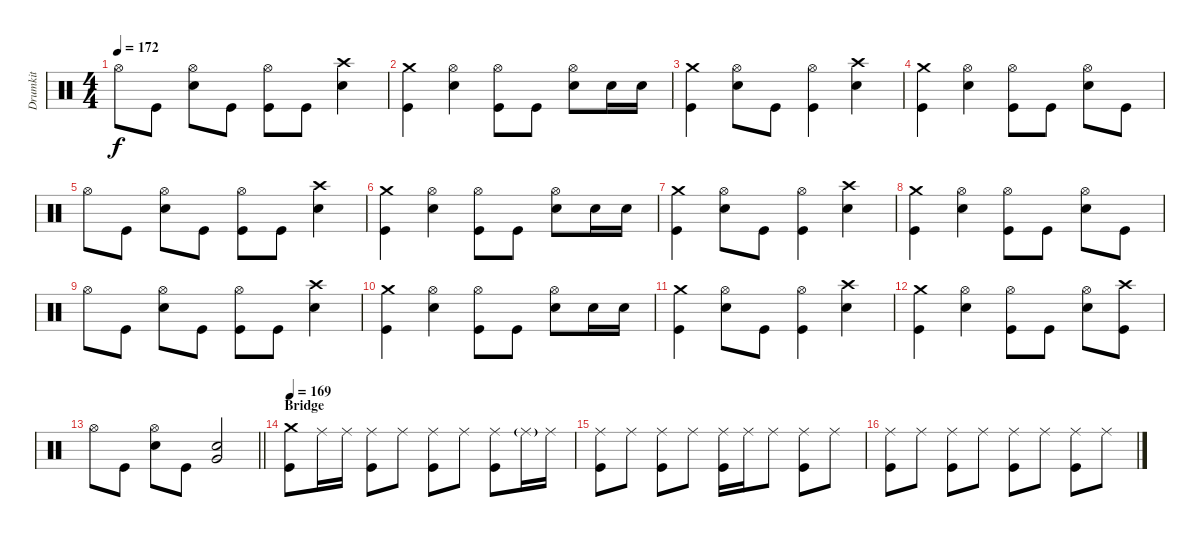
\track ("Drumkit" "Drumkit") {instrument percussion}
\staff {score}
\articulation defaults
\ts (4 4)
\tempo 172
\clef neutral
\ks c "Hi-Hat (open)".8{dy f} "Kick (hit)".8
("Hi-Hat (open)" "Snare (hit) 2").8 "Kick (hit)".8 ("Hi-Hat (open)" "Kick (hit)").8 "Kick (hit)".8 ("Crash high (hit)" "Snare (hit) 2").4 |
("Crash medium (hit)" "Kick (hit)").4 ("Hi-Hat (open)" "Snare (hit) 2").4 ("Hi-Hat (open)" "Kick (hit)").8 "Kick (hit)".8 ("Hi-Hat (open)" "Snare (hit) 2").8 "Snare (hit) 2".16 "Snare (hit) 2".16 |
("Crash medium (hit)" "Kick (hit)").4 ("Hi-Hat (open)" "Snare (hit) 2").8 "Kick (hit)".8 ("Hi-Hat (open)" "Kick (hit)").4 ("Crash high (hit)" "Snare (hit) 2").4 |
("Crash medium (hit)" "Kick (hit)").4 ("Hi-Hat (open)" "Snare (hit) 2").4 ("Hi-Hat (open)" "Kick (hit)").8 "Kick (hit)".8 ("Hi-Hat (open)" "Snare (hit) 2").8 "Kick (hit)".8 |
"Hi-Hat (open)".8 "Kick (hit)".8 ("Hi-Hat (open)" "Snare (hit) 2").8 "Kick (hit)".8 ("Hi-Hat (open)" "Kick (hit)").8 "Kick (hit)".8 ("Crash high (hit)" "Snare (hit) 2").4 |
("Crash medium (hit)" "Kick (hit)").4 ("Hi-Hat (open)" "Snare (hit) 2").4 ("Hi-Hat (open)" "Kick (hit)").8 "Kick (hit)".8 ("Hi-Hat (open)" "Snare (hit) 2").8 "Snare (hit) 2".16 "Snare (hit) 2".16 |
("Crash medium (hit)" "Kick (hit)").4 ("Hi-Hat (open)" "Snare (hit) 2").8 "Kick (hit)".8 ("Hi-Hat (open)" "Kick (hit)").4 ("Crash high (hit)" "Snare (hit) 2").4 |
("Crash medium (hit)" "Kick (hit)").4 ("Hi-Hat (open)" "Snare (hit) 2").4 ("Hi-Hat (open)" "Kick (hit)").8 "Kick (hit)".8 ("Hi-Hat (open)" "Snare (hit) 2").8 "Kick (hit)".8 |
"Hi-Hat (open)".8 "Kick (hit)".8 ("Hi-Hat (open)" "Snare (hit) 2").8 "Kick (hit)".8 ("Hi-Hat (open)" "Kick (hit)").8 "Kick (hit)".8 ("Crash high (hit)" "Snare (hit) 2").4 |
("Crash medium (hit)" "Kick (hit)").4 ("Hi-Hat (open)" "Snare (hit) 2").4 ("Hi-Hat (open)" "Kick (hit)").8 "Kick (hit)".8 ("Hi-Hat (open)" "Snare (hit) 2").8 "Snare (hit) 2".16 "Snare (hit) 2".16 |
("Crash medium (hit)" "Kick (hit)").4 ("Hi-Hat (open)" "Snare (hit) 2").8 "Kick (hit)".8 ("Hi-Hat (open)" "Kick (hit)").4 ("Crash high (hit)" "Snare (hit) 2").4 |
("Crash medium (hit)" "Kick (hit)").4 ("Hi-Hat (open)" "Snare (hit) 2").4 ("Hi-Hat (open)" "Kick (hit)").8 "Kick (hit)".8 ("Hi-Hat (open)" "Snare (hit) 2").8 ("Crash high (hit)" "Kick (hit)").8 |
\barLineRight lightlight "Hi-Hat (open)".8 "Kick (hit)".8
("Hi-Hat (open)" "Snare (hit) 2").8 "Kick (hit)".8 ("Very Low Tom (hit)" "Snare (hit) 2").2 |
\section ("" "Bridge")
\tempo 169
("Crash medium (hit)" "Kick (hit)").8 "Ride (middle)".16 "Ride (middle)".16 ("Ride (middle)" "Kick (hit)").8 "Ride (middle)".8 ("Ride (middle)" "Kick (hit)").8 "Ride (middle)".8 ("Ride (middle)" "Kick (hit)").8 "Ride (middle)"{g}.16 "Ride (middle)".16 |
("Ride (middle)" "Kick (hit)").8 "Ride (middle)".8 ("Ride (middle)" "Kick (hit)").8 "Ride (middle)".8 ("Ride (middle)" "Kick (hit)").16 "Ride (middle)".16 "Ride (middle)".8 ("Ride (middle)" "Kick (hit)").8 "Ride (middle)".8 |
("Ride (middle)" "Kick (hit)").8 "Ride (middle)".8 ("Ride (middle)" "Kick (hit)").8 "Ride (middle)".8 ("Ride (middle)" "Kick (hit)").8 "Ride (middle)".8 ("Ride (middle)" "Kick (hit)").8 "Ride (middle)".8
